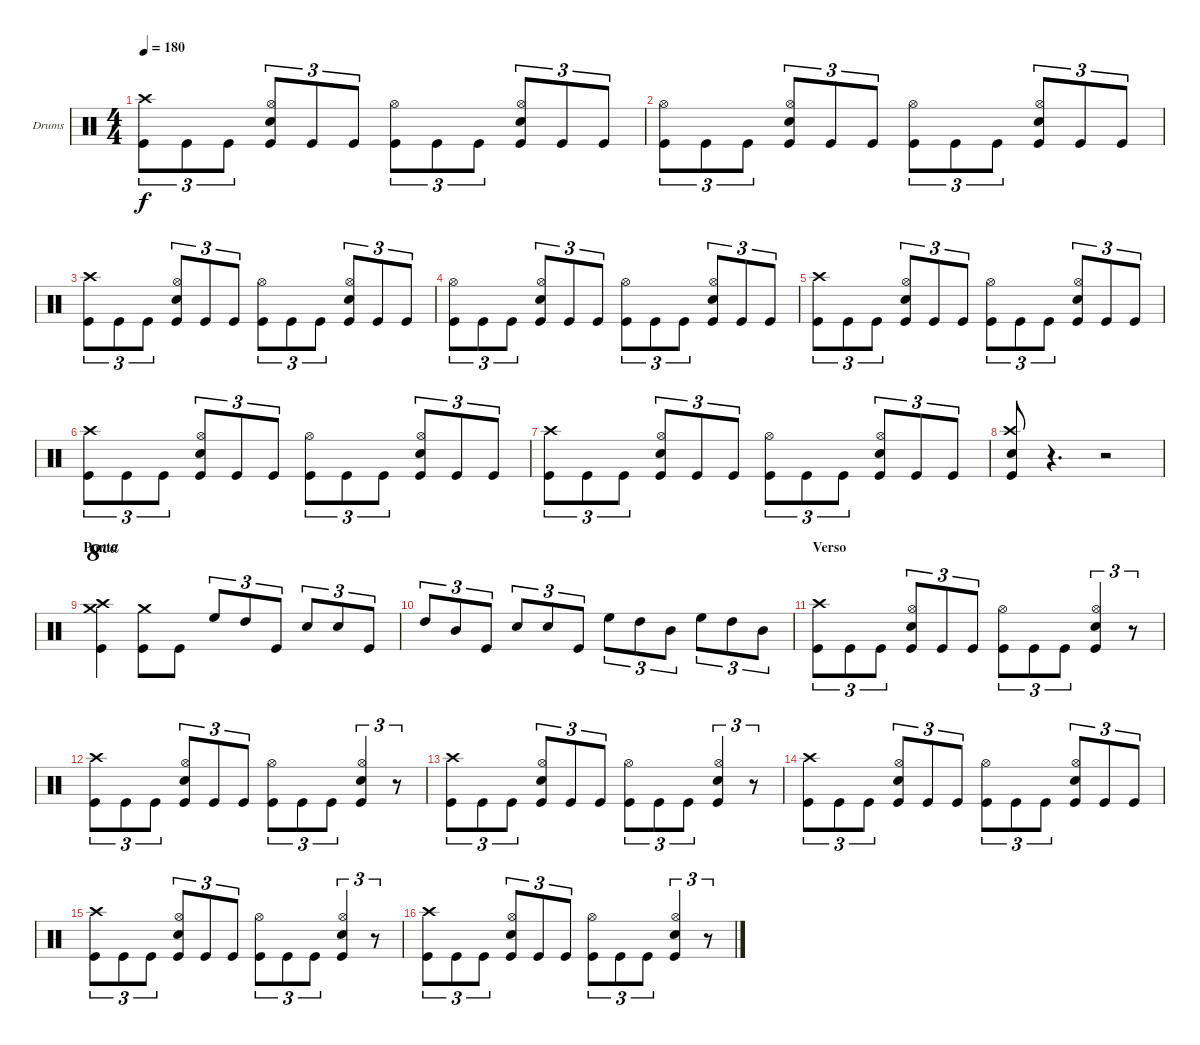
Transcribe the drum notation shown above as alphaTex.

\defaultSystemsLayout 4
\bracketExtendMode groupsimilarinstruments
\firstSystemTrackNameOrientation horizontal
\otherSystemsTrackNameOrientation horizontal
\track ("Drumkit" "Drums") {instrument percussion}
\staff {score}
\articulation defaults
\ts (4 4)
\tempo 180
\clef neutral
\ks c
("Kick (hit)" "Crash high (hit)").8{tu (3 2) dy f} "Kick (hit)".8{tu (3 2)} "Kick (hit)".8{tu (3 2)} ("Hi-Hat (open)" "Snare (hit) 2" "Kick (hit)").8{tu (3 2)} "Kick (hit)".8{tu (3 2)} "Kick (hit)".8{tu (3 2)} ("Hi-Hat (open)" "Kick (hit)").8{tu (3 2)} "Kick (hit)".8{tu (3 2)} "Kick (hit)".8{tu (3 2)} ("Hi-Hat (open)" "Snare (hit) 2" "Kick (hit)").8{tu (3 2)} "Kick (hit)".8{tu (3 2)} "Kick (hit)".8{tu (3 2)} |
("Hi-Hat (open)" "Kick (hit)").8{tu (3 2)} "Kick (hit)".8{tu (3 2)} "Kick (hit)".8{tu (3 2)} ("Hi-Hat (open)" "Snare (hit) 2" "Kick (hit)").8{tu (3 2)} "Kick (hit)".8{tu (3 2)} "Kick (hit)".8{tu (3 2)} ("Hi-Hat (open)" "Kick (hit)").8{tu (3 2)} "Kick (hit)".8{tu (3 2)} "Kick (hit)".8{tu (3 2)} ("Hi-Hat (open)" "Snare (hit) 2" "Kick (hit)").8{tu (3 2)} "Kick (hit)".8{tu (3 2)} "Kick (hit)".8{tu (3 2)} |
("Kick (hit)" "Crash high (hit)").8{tu (3 2)} "Kick (hit)".8{tu (3 2)} "Kick (hit)".8{tu (3 2)} ("Hi-Hat (open)" "Snare (hit) 2" "Kick (hit)").8{tu (3 2)} "Kick (hit)".8{tu (3 2)} "Kick (hit)".8{tu (3 2)} ("Hi-Hat (open)" "Kick (hit)").8{tu (3 2)} "Kick (hit)".8{tu (3 2)} "Kick (hit)".8{tu (3 2)} ("Hi-Hat (open)" "Snare (hit) 2" "Kick (hit)").8{tu (3 2)} "Kick (hit)".8{tu (3 2)} "Kick (hit)".8{tu (3 2)} |
("Hi-Hat (open)" "Kick (hit)").8{tu (3 2)} "Kick (hit)".8{tu (3 2)} "Kick (hit)".8{tu (3 2)} ("Hi-Hat (open)" "Snare (hit) 2" "Kick (hit)").8{tu (3 2)} "Kick (hit)".8{tu (3 2)} "Kick (hit)".8{tu (3 2)} ("Hi-Hat (open)" "Kick (hit)").8{tu (3 2)} "Kick (hit)".8{tu (3 2)} "Kick (hit)".8{tu (3 2)} ("Hi-Hat (open)" "Snare (hit) 2" "Kick (hit)").8{tu (3 2)} "Kick (hit)".8{tu (3 2)} "Kick (hit)".8{tu (3 2)} |
("Kick (hit)" "Crash high (hit)").8{tu (3 2)} "Kick (hit)".8{tu (3 2)} "Kick (hit)".8{tu (3 2)} ("Hi-Hat (open)" "Snare (hit) 2" "Kick (hit)").8{tu (3 2)} "Kick (hit)".8{tu (3 2)} "Kick (hit)".8{tu (3 2)} ("Hi-Hat (open)" "Kick (hit)").8{tu (3 2)} "Kick (hit)".8{tu (3 2)} "Kick (hit)".8{tu (3 2)} ("Hi-Hat (open)" "Snare (hit) 2" "Kick (hit)").8{tu (3 2)} "Kick (hit)".8{tu (3 2)} "Kick (hit)".8{tu (3 2)} |
("Kick (hit)" "Crash high (hit)").8{tu (3 2)} "Kick (hit)".8{tu (3 2)} "Kick (hit)".8{tu (3 2)} ("Hi-Hat (open)" "Snare (hit) 2" "Kick (hit)").8{tu (3 2)} "Kick (hit)".8{tu (3 2)} "Kick (hit)".8{tu (3 2)} ("Hi-Hat (open)" "Kick (hit)").8{tu (3 2)} "Kick (hit)".8{tu (3 2)} "Kick (hit)".8{tu (3 2)} ("Hi-Hat (open)" "Snare (hit) 2" "Kick (hit)").8{tu (3 2)} "Kick (hit)".8{tu (3 2)} "Kick (hit)".8{tu (3 2)} |
("Kick (hit)" "Crash high (hit)").8{tu (3 2)} "Kick (hit)".8{tu (3 2)} "Kick (hit)".8{tu (3 2)} ("Hi-Hat (open)" "Snare (hit) 2" "Kick (hit)").8{tu (3 2)} "Kick (hit)".8{tu (3 2)} "Kick (hit)".8{tu (3 2)} ("Hi-Hat (open)" "Kick (hit)").8{tu (3 2)} "Kick (hit)".8{tu (3 2)} "Kick (hit)".8{tu (3 2)} ("Hi-Hat (open)" "Snare (hit) 2" "Kick (hit)").8{tu (3 2)} "Kick (hit)".8{tu (3 2)} "Kick (hit)".8{tu (3 2)} |
("Kick (hit)" "Snare (hit) 2" "Crash high (hit)").8 r.4{d} r.2 |
\section ("" "Ponte")
("Kick (hit)" "Crash high (hit)" "Crash medium (hit)").4{ot 8va} ("Crash medium (hit)" "Kick (hit)").8 "Kick (hit)".8 "High Floor Tom (hit)".8{tu (3 2)} "High Tom (hit)".8{tu (3 2)} "Kick (hit)".8{tu (3 2)} "Snare (hit) 2".8{tu (3 2)} "Snare (hit) 2".8{tu (3 2)} "Kick (hit)".8{tu (3 2)} |
"High Tom (hit)".8{tu (3 2)} "Mid Tom (hit)".8{tu (3 2)} "Kick (hit)".8{tu (3 2)} "Snare (hit) 2".8{tu (3 2)} "Snare (hit) 2".8{tu (3 2)} "Kick (hit)".8{tu (3 2)} "High Floor Tom (hit)".8{tu (3 2)} "High Tom (hit)".8{tu (3 2)} "Mid Tom (hit)".8{tu (3 2)} "High Floor Tom (hit)".8{tu (3 2)} "High Tom (hit)".8{tu (3 2)} "Mid Tom (hit)".8{tu (3 2)} |
\section ("" "Verso")
("Kick (hit)" "Crash high (hit)").8{tu (3 2)} "Kick (hit)".8{tu (3 2)} "Kick (hit)".8{tu (3 2)} ("Hi-Hat (open)" "Snare (hit) 2" "Kick (hit)").8{tu (3 2)} "Kick (hit)".8{tu (3 2)} "Kick (hit)".8{tu (3 2)} ("Hi-Hat (open)" "Kick (hit)").8{tu (3 2)} "Kick (hit)".8{tu (3 2)} "Kick (hit)".8{tu (3 2)} ("Hi-Hat (open)" "Snare (hit) 2" "Kick (hit)").4{tu (3 2)} r.8{tu (3 2)} |
("Kick (hit)" "Crash high (hit)").8{tu (3 2)} "Kick (hit)".8{tu (3 2)} "Kick (hit)".8{tu (3 2)} ("Hi-Hat (open)" "Snare (hit) 2" "Kick (hit)").8{tu (3 2)} "Kick (hit)".8{tu (3 2)} "Kick (hit)".8{tu (3 2)} ("Hi-Hat (open)" "Kick (hit)").8{tu (3 2)} "Kick (hit)".8{tu (3 2)} "Kick (hit)".8{tu (3 2)} ("Hi-Hat (open)" "Snare (hit) 2" "Kick (hit)").4{tu (3 2)} r.8{tu (3 2)} |
("Kick (hit)" "Crash high (hit)").8{tu (3 2)} "Kick (hit)".8{tu (3 2)} "Kick (hit)".8{tu (3 2)} ("Hi-Hat (open)" "Snare (hit) 2" "Kick (hit)").8{tu (3 2)} "Kick (hit)".8{tu (3 2)} "Kick (hit)".8{tu (3 2)} ("Hi-Hat (open)" "Kick (hit)").8{tu (3 2)} "Kick (hit)".8{tu (3 2)} "Kick (hit)".8{tu (3 2)} ("Hi-Hat (open)" "Snare (hit) 2" "Kick (hit)").4{tu (3 2)} r.8{tu (3 2)} |
("Kick (hit)" "Crash high (hit)").8{tu (3 2)} "Kick (hit)".8{tu (3 2)} "Kick (hit)".8{tu (3 2)} ("Hi-Hat (open)" "Snare (hit) 2" "Kick (hit)").8{tu (3 2)} "Kick (hit)".8{tu (3 2)} "Kick (hit)".8{tu (3 2)} ("Hi-Hat (open)" "Kick (hit)").8{tu (3 2)} "Kick (hit)".8{tu (3 2)} "Kick (hit)".8{tu (3 2)} ("Hi-Hat (open)" "Snare (hit) 2" "Kick (hit)").8{tu (3 2)} "Kick (hit)".8{tu (3 2)} "Kick (hit)".8{tu (3 2)} |
("Kick (hit)" "Crash high (hit)").8{tu (3 2)} "Kick (hit)".8{tu (3 2)} "Kick (hit)".8{tu (3 2)} ("Hi-Hat (open)" "Snare (hit) 2" "Kick (hit)").8{tu (3 2)} "Kick (hit)".8{tu (3 2)} "Kick (hit)".8{tu (3 2)} ("Hi-Hat (open)" "Kick (hit)").8{tu (3 2)} "Kick (hit)".8{tu (3 2)} "Kick (hit)".8{tu (3 2)} ("Hi-Hat (open)" "Snare (hit) 2" "Kick (hit)").4{tu (3 2)} r.8{tu (3 2)} |
("Kick (hit)" "Crash high (hit)").8{tu (3 2)} "Kick (hit)".8{tu (3 2)} "Kick (hit)".8{tu (3 2)} ("Hi-Hat (open)" "Snare (hit) 2" "Kick (hit)").8{tu (3 2)} "Kick (hit)".8{tu (3 2)} "Kick (hit)".8{tu (3 2)} ("Hi-Hat (open)" "Kick (hit)").8{tu (3 2)} "Kick (hit)".8{tu (3 2)} "Kick (hit)".8{tu (3 2)} ("Hi-Hat (open)" "Snare (hit) 2" "Kick (hit)").4{tu (3 2)} r.8{tu (3 2)}
